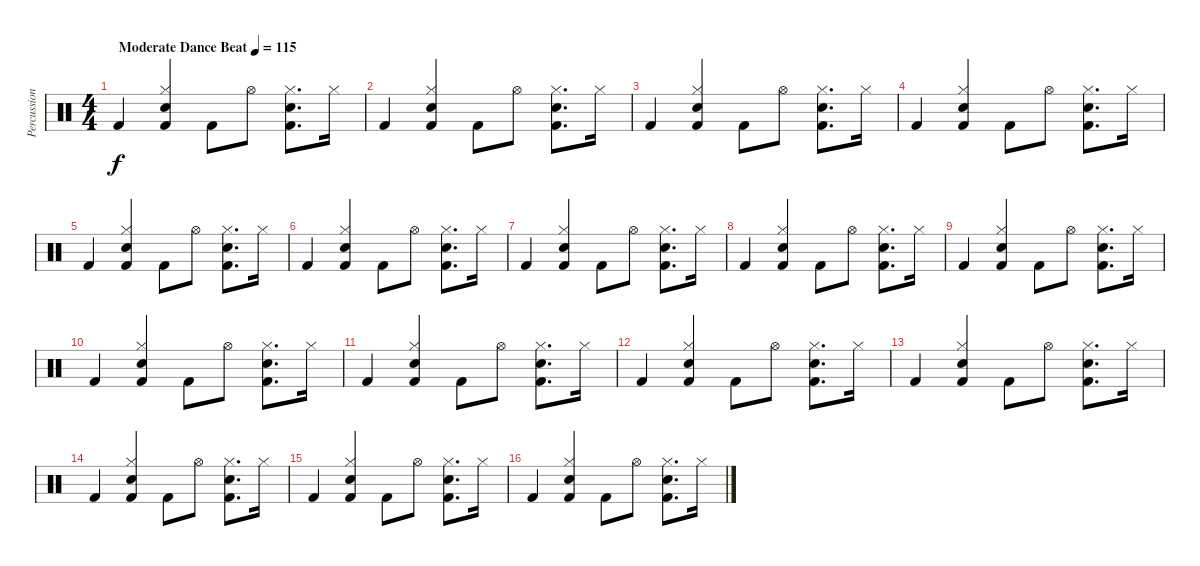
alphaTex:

\track ("Percussion" "Percussion") {instrument percussion}
\staff {score}
\articulation defaults
\ts (4 4)
\tempo (115 "Moderate Dance Beat")
\clef neutral
\ks c "Kick (hit) 2".4{dy f}
("Hi-Hat (closed)" "Hand Clap (hit)" "Kick (hit) 2").4 "Kick (hit) 2".8 "Hi-Hat (open)".8 ("Hi-Hat (closed)" "Hand Clap (hit)" "Kick (hit) 2").8{d} "Hi-Hat (closed)".16 |
"Kick (hit) 2".4 ("Hi-Hat (closed)" "Hand Clap (hit)" "Kick (hit) 2").4 "Kick (hit) 2".8 "Hi-Hat (open)".8 ("Hi-Hat (closed)" "Hand Clap (hit)" "Kick (hit) 2").8{d} "Hi-Hat (closed)".16 |
"Kick (hit) 2".4 ("Hi-Hat (closed)" "Hand Clap (hit)" "Kick (hit) 2").4 "Kick (hit) 2".8 "Hi-Hat (open)".8 ("Hi-Hat (closed)" "Hand Clap (hit)" "Kick (hit) 2").8{d} "Hi-Hat (closed)".16 |
"Kick (hit) 2".4 ("Hi-Hat (closed)" "Hand Clap (hit)" "Kick (hit) 2").4 "Kick (hit) 2".8 "Hi-Hat (open)".8 ("Hi-Hat (closed)" "Hand Clap (hit)" "Kick (hit) 2").8{d} "Hi-Hat (closed)".16 |
"Kick (hit) 2".4 ("Hi-Hat (closed)" "Hand Clap (hit)" "Kick (hit) 2").4 "Kick (hit) 2".8 "Hi-Hat (open)".8 ("Hi-Hat (closed)" "Hand Clap (hit)" "Kick (hit) 2").8{d} "Hi-Hat (closed)".16 |
"Kick (hit) 2".4 ("Hi-Hat (closed)" "Hand Clap (hit)" "Kick (hit) 2").4 "Kick (hit) 2".8 "Hi-Hat (open)".8 ("Hi-Hat (closed)" "Hand Clap (hit)" "Kick (hit) 2").8{d} "Hi-Hat (closed)".16 |
"Kick (hit) 2".4 ("Hi-Hat (closed)" "Hand Clap (hit)" "Kick (hit) 2").4 "Kick (hit) 2".8 "Hi-Hat (open)".8 ("Hi-Hat (closed)" "Hand Clap (hit)" "Kick (hit) 2").8{d} "Hi-Hat (closed)".16 |
"Kick (hit) 2".4 ("Hi-Hat (closed)" "Hand Clap (hit)" "Kick (hit) 2").4 "Kick (hit) 2".8 "Hi-Hat (open)".8 ("Hi-Hat (closed)" "Hand Clap (hit)" "Kick (hit) 2").8{d} "Hi-Hat (closed)".16 |
"Kick (hit) 2".4 ("Hi-Hat (closed)" "Hand Clap (hit)" "Kick (hit) 2").4 "Kick (hit) 2".8 "Hi-Hat (open)".8 ("Hi-Hat (closed)" "Hand Clap (hit)" "Kick (hit) 2").8{d} "Hi-Hat (closed)".16 |
"Kick (hit) 2".4 ("Hi-Hat (closed)" "Hand Clap (hit)" "Kick (hit) 2").4 "Kick (hit) 2".8 "Hi-Hat (open)".8 ("Hi-Hat (closed)" "Hand Clap (hit)" "Kick (hit) 2").8{d} "Hi-Hat (closed)".16 |
"Kick (hit) 2".4 ("Hi-Hat (closed)" "Hand Clap (hit)" "Kick (hit) 2").4 "Kick (hit) 2".8 "Hi-Hat (open)".8 ("Hi-Hat (closed)" "Hand Clap (hit)" "Kick (hit) 2").8{d} "Hi-Hat (closed)".16 |
"Kick (hit) 2".4 ("Hi-Hat (closed)" "Hand Clap (hit)" "Kick (hit) 2").4 "Kick (hit) 2".8 "Hi-Hat (open)".8 ("Hi-Hat (closed)" "Hand Clap (hit)" "Kick (hit) 2").8{d} "Hi-Hat (closed)".16 |
"Kick (hit) 2".4 ("Hi-Hat (closed)" "Hand Clap (hit)" "Kick (hit) 2").4 "Kick (hit) 2".8 "Hi-Hat (open)".8 ("Hi-Hat (closed)" "Hand Clap (hit)" "Kick (hit) 2").8{d} "Hi-Hat (closed)".16 |
"Kick (hit) 2".4 ("Hi-Hat (closed)" "Hand Clap (hit)" "Kick (hit) 2").4 "Kick (hit) 2".8 "Hi-Hat (open)".8 ("Hi-Hat (closed)" "Hand Clap (hit)" "Kick (hit) 2").8{d} "Hi-Hat (closed)".16 |
"Kick (hit) 2".4 ("Hi-Hat (closed)" "Hand Clap (hit)" "Kick (hit) 2").4 "Kick (hit) 2".8 "Hi-Hat (open)".8 ("Hi-Hat (closed)" "Hand Clap (hit)" "Kick (hit) 2").8{d} "Hi-Hat (closed)".16 |
"Kick (hit) 2".4 ("Hi-Hat (closed)" "Hand Clap (hit)" "Kick (hit) 2").4 "Kick (hit) 2".8 "Hi-Hat (open)".8 ("Hi-Hat (closed)" "Hand Clap (hit)" "Kick (hit) 2").8{d} "Hi-Hat (closed)".16
